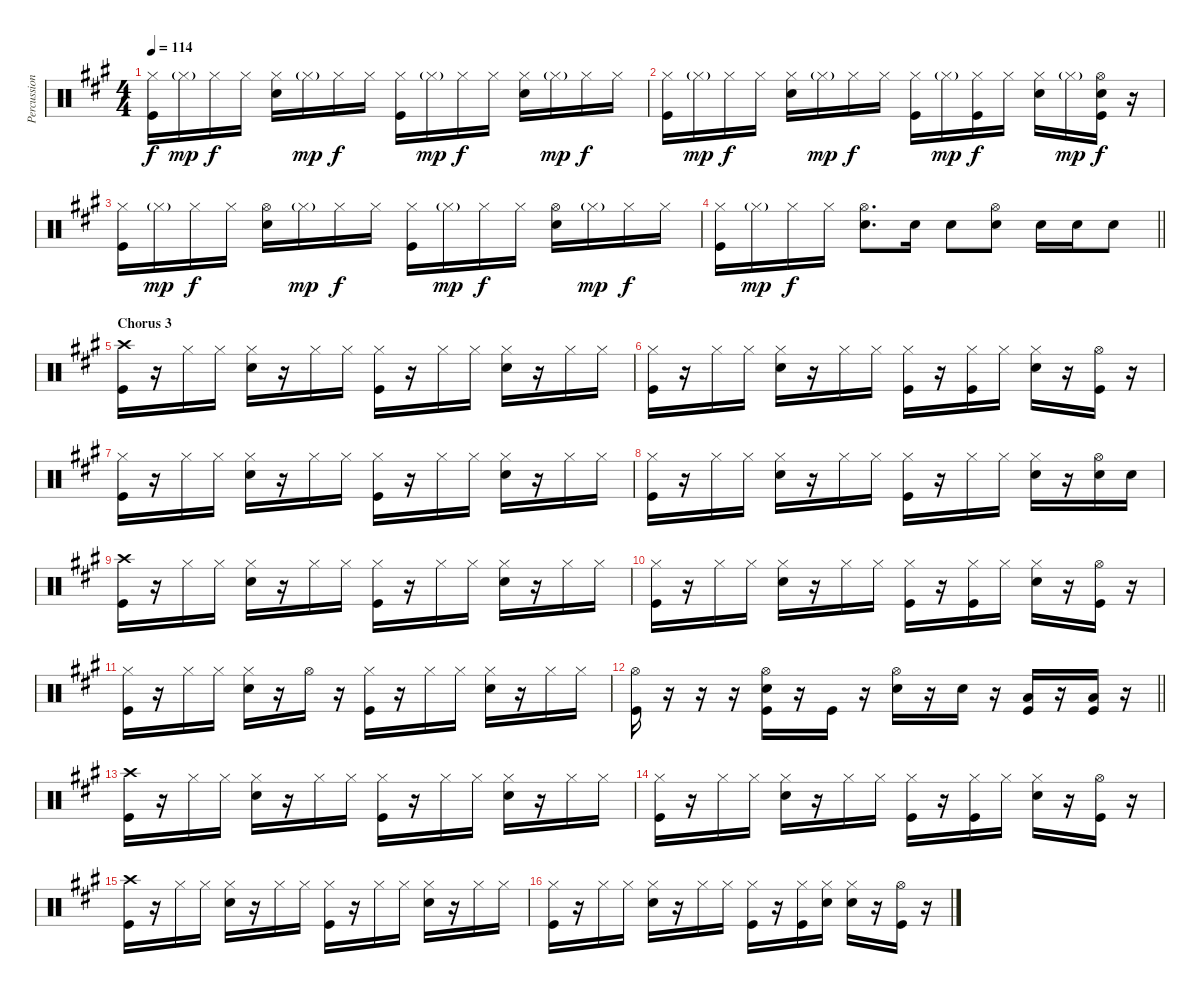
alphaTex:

\track ("Percussion" "Percussion") {instrument percussion}
\staff {score}
\articulation defaults
\ts (4 4)
\tempo 114
\clef neutral
\ks a
("Hi-Hat (closed)" "Kick (hit)").16{dy f} "Hi-Hat (closed)"{g}.16{dy mp} "Hi-Hat (closed)".16{dy f} "Hi-Hat (closed)".16 ("Hi-Hat (closed)" "Snare (hit) 2").16 "Hi-Hat (closed)"{g}.16{dy mp} "Hi-Hat (closed)".16{dy f} "Hi-Hat (closed)".16 ("Hi-Hat (closed)" "Kick (hit)").16 "Hi-Hat (closed)"{g}.16{dy mp} "Hi-Hat (closed)".16{dy f} "Hi-Hat (closed)".16 ("Hi-Hat (closed)" "Snare (hit) 2").16 "Hi-Hat (closed)"{g}.16{dy mp} "Hi-Hat (closed)".16{dy f} "Hi-Hat (closed)".16 |
("Hi-Hat (closed)" "Kick (hit)").16 "Hi-Hat (closed)"{g}.16{dy mp} "Hi-Hat (closed)".16{dy f} "Hi-Hat (closed)".16 ("Hi-Hat (closed)" "Snare (hit) 2").16 "Hi-Hat (closed)"{g}.16{dy mp} "Hi-Hat (closed)".16{dy f} "Hi-Hat (closed)".16 ("Hi-Hat (closed)" "Kick (hit)").16 "Hi-Hat (closed)"{g}.16{dy mp} ("Hi-Hat (closed)" "Kick (hit)").16{dy f} "Hi-Hat (closed)".16 ("Hi-Hat (closed)" "Snare (hit) 2").16 "Hi-Hat (closed)"{g}.16{dy mp} ("Hi-Hat (open)" "Snare (hit) 2" "Kick (hit)").16{dy f} r.16 |
("Hi-Hat (closed)" "Kick (hit)").16 "Hi-Hat (closed)"{g}.16{dy mp} "Hi-Hat (closed)".16{dy f} "Hi-Hat (closed)".16 ("Hi-Hat (open)" "Snare (hit) 2").16 "Hi-Hat (closed)"{g}.16{dy mp} "Hi-Hat (closed)".16{dy f} "Hi-Hat (closed)".16 ("Hi-Hat (closed)" "Kick (hit)").16 "Hi-Hat (closed)"{g}.16{dy mp} "Hi-Hat (closed)".16{dy f} "Hi-Hat (closed)".16 ("Hi-Hat (open)" "Snare (hit) 2").16 "Hi-Hat (closed)"{g}.16{dy mp} "Hi-Hat (closed)".16{dy f} "Hi-Hat (closed)".16 |
\barLineRight lightlight
("Hi-Hat (closed)" "Kick (hit)").16 "Hi-Hat (closed)"{g}.16{dy mp} "Hi-Hat (closed)".16{dy f} "Hi-Hat (closed)".16 ("Hi-Hat (open)" "Snare (hit) 2").8{d} "Snare (hit) 2".16 "Snare (hit) 2".8 ("Hi-Hat (open)" "Snare (hit) 2").8 "Snare (hit) 2".16 "Snare (hit) 2".16 "Snare (hit) 2".8 |
\section ("" "Chorus 3")
("Crash high (hit)" "Kick (hit)").16 r.16 "Hi-Hat (closed)".16 "Hi-Hat (closed)".16 ("Hi-Hat (closed)" "Snare (hit) 2").16 r.16 "Hi-Hat (closed)".16 "Hi-Hat (closed)".16 ("Hi-Hat (closed)" "Kick (hit)").16 r.16 "Hi-Hat (closed)".16 "Hi-Hat (closed)".16 ("Hi-Hat (closed)" "Snare (hit) 2").16 r.16 "Hi-Hat (closed)".16 "Hi-Hat (closed)".16 |
("Hi-Hat (closed)" "Kick (hit)").16 r.16 "Hi-Hat (closed)".16 "Hi-Hat (closed)".16 ("Hi-Hat (closed)" "Snare (hit) 2").16 r.16 "Hi-Hat (closed)".16 "Hi-Hat (closed)".16 ("Hi-Hat (closed)" "Kick (hit)").16 r.16 ("Hi-Hat (closed)" "Kick (hit)").16 "Hi-Hat (closed)".16 ("Hi-Hat (closed)" "Snare (hit) 2").16 r.16 ("Hi-Hat (open)" "Kick (hit)").16 r.16 |
("Hi-Hat (closed)" "Kick (hit)").16 r.16 "Hi-Hat (closed)".16 "Hi-Hat (closed)".16 ("Hi-Hat (closed)" "Snare (hit) 2").16 r.16 "Hi-Hat (closed)".16 "Hi-Hat (closed)".16 ("Hi-Hat (closed)" "Kick (hit)").16 r.16 "Hi-Hat (closed)".16 "Hi-Hat (closed)".16 ("Hi-Hat (closed)" "Snare (hit) 2").16 r.16 "Hi-Hat (closed)".16 "Hi-Hat (closed)".16 |
("Hi-Hat (closed)" "Kick (hit)").16 r.16 "Hi-Hat (closed)".16 "Hi-Hat (closed)".16 ("Hi-Hat (closed)" "Snare (hit) 2").16 r.16 "Hi-Hat (closed)".16 "Hi-Hat (closed)".16 ("Hi-Hat (closed)" "Kick (hit)").16 r.16 "Hi-Hat (closed)".16 "Hi-Hat (closed)".16 ("Hi-Hat (closed)" "Snare (hit) 2").16 r.16 ("Hi-Hat (open)" "Snare (hit) 2").16 "Snare (hit) 2".16 |
("Crash high (hit)" "Kick (hit)").16 r.16 "Hi-Hat (closed)".16 "Hi-Hat (closed)".16 ("Hi-Hat (closed)" "Snare (hit) 2").16 r.16 "Hi-Hat (closed)".16 "Hi-Hat (closed)".16 ("Hi-Hat (closed)" "Kick (hit)").16 r.16 "Hi-Hat (closed)".16 "Hi-Hat (closed)".16 ("Hi-Hat (closed)" "Snare (hit) 2").16 r.16 "Hi-Hat (closed)".16 "Hi-Hat (closed)".16 |
("Hi-Hat (closed)" "Kick (hit)").16 r.16 "Hi-Hat (closed)".16 "Hi-Hat (closed)".16 ("Hi-Hat (closed)" "Snare (hit) 2").16 r.16 "Hi-Hat (closed)".16 "Hi-Hat (closed)".16 ("Hi-Hat (closed)" "Kick (hit)").16 r.16 ("Hi-Hat (closed)" "Kick (hit)").16 "Hi-Hat (closed)".16 ("Hi-Hat (closed)" "Snare (hit) 2").16 r.16 ("Hi-Hat (open)" "Kick (hit)").16 r.16 |
("Hi-Hat (closed)" "Kick (hit)").16 r.16 "Hi-Hat (closed)".16 "Hi-Hat (closed)".16 ("Hi-Hat (closed)" "Snare (hit) 2").16 r.16 "Hi-Hat (open)".16 r.16 ("Hi-Hat (closed)" "Kick (hit)").16 r.16 "Hi-Hat (closed)".16 "Hi-Hat (closed)".16 ("Hi-Hat (closed)" "Snare (hit) 2").16 r.16 "Hi-Hat (closed)".16 "Hi-Hat (closed)".16 |
\barLineRight lightlight
("Hi-Hat (open)" "Kick (hit)").16 r.16 r.16 r.16 ("Hi-Hat (open)" "Snare (hit) 2" "Kick (hit)").16 r.16 "Kick (hit)".16 r.16 ("Hi-Hat (open)" "Snare (hit) 2").16 r.16 "Snare (hit) 2".16 r.16 ("Low Tom (hit)" "Kick (hit)").16 r.16 ("Low Tom (hit)" "Kick (hit)").16 r.16 |
("Crash high (hit)" "Kick (hit)").16 r.16 "Hi-Hat (closed)".16 "Hi-Hat (closed)".16 ("Hi-Hat (closed)" "Snare (hit) 2").16 r.16 "Hi-Hat (closed)".16 "Hi-Hat (closed)".16 ("Hi-Hat (closed)" "Kick (hit)").16 r.16 "Hi-Hat (closed)".16 "Hi-Hat (closed)".16 ("Hi-Hat (closed)" "Snare (hit) 2").16 r.16 "Hi-Hat (closed)".16 "Hi-Hat (closed)".16 |
("Hi-Hat (closed)" "Kick (hit)").16 r.16 "Hi-Hat (closed)".16 "Hi-Hat (closed)".16 ("Hi-Hat (closed)" "Snare (hit) 2").16 r.16 "Hi-Hat (closed)".16 "Hi-Hat (closed)".16 ("Hi-Hat (closed)" "Kick (hit)").16 r.16 ("Hi-Hat (closed)" "Kick (hit)").16 "Hi-Hat (closed)".16 ("Hi-Hat (closed)" "Snare (hit) 2").16 r.16 ("Hi-Hat (open)" "Kick (hit)").16 r.16 |
("Crash high (hit)" "Kick (hit)").16 r.16 "Hi-Hat (closed)".16 "Hi-Hat (closed)".16 ("Hi-Hat (closed)" "Snare (hit) 2").16 r.16 "Hi-Hat (closed)".16 "Hi-Hat (closed)".16 ("Hi-Hat (closed)" "Kick (hit)").16 r.16 "Hi-Hat (closed)".16 "Hi-Hat (closed)".16 ("Hi-Hat (closed)" "Snare (hit) 2").16 r.16 "Hi-Hat (closed)".16 "Hi-Hat (closed)".16 |
("Hi-Hat (closed)" "Kick (hit)").16 r.16 "Hi-Hat (closed)".16 "Hi-Hat (closed)".16 ("Hi-Hat (closed)" "Snare (hit) 2").16 r.16 "Hi-Hat (closed)".16 "Hi-Hat (closed)".16 ("Hi-Hat (closed)" "Kick (hit)").16 r.16 ("Hi-Hat (closed)" "Kick (hit)").16 ("Hi-Hat (closed)" "Snare (hit) 2").16 ("Hi-Hat (closed)" "Snare (hit) 2").16 r.16 ("Hi-Hat (open)" "Kick (hit)").16 r.16
